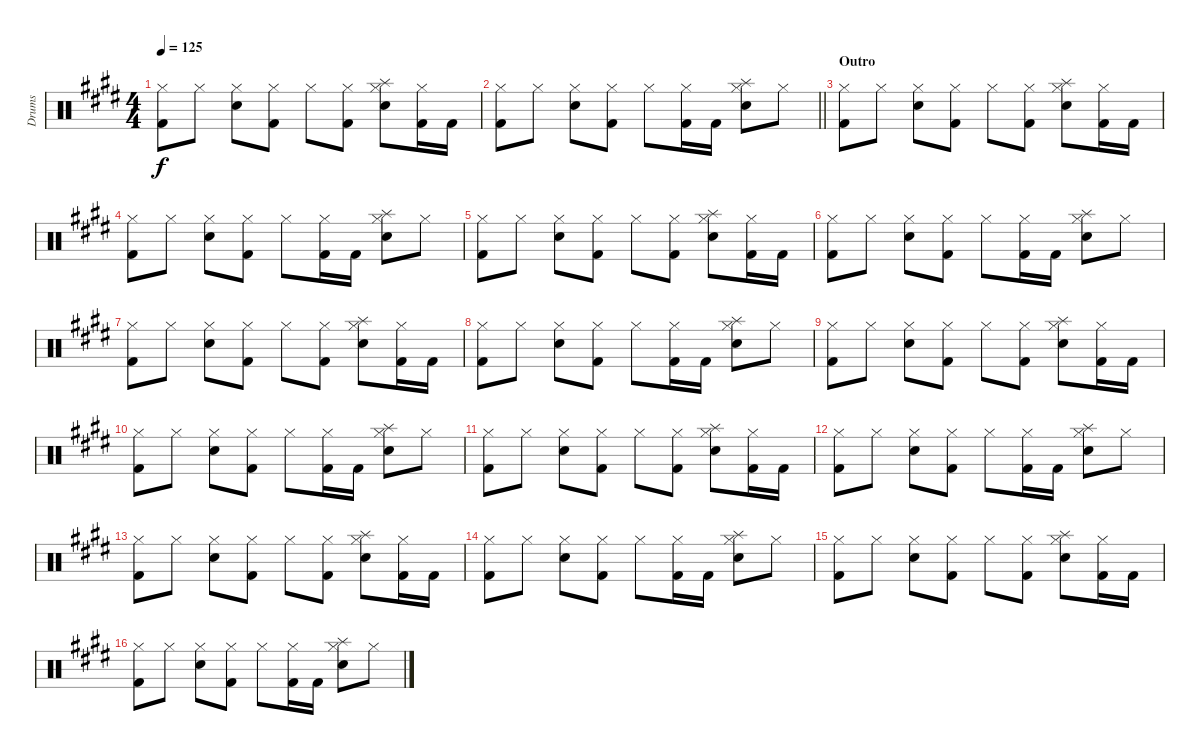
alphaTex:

\track ("Drums" "Drums") {instrument percussion}
\staff {score}
\articulation defaults
\ts (4 4)
\tempo 125
\clef neutral
\ks c#minor
("Hi-Hat (closed)" "Kick (hit) 2").8{dy f} "Hi-Hat (closed)".8 ("Hi-Hat (closed)" "Snare (hit) 2").8 ("Hi-Hat (closed)" "Kick (hit) 2").8 "Hi-Hat (closed)".8 ("Hi-Hat (closed)" "Kick (hit) 2").8 ("Hi-Hat (closed)" "Snare (hit) 2" "Splash (hit)").8 ("Hi-Hat (closed)" "Kick (hit) 2").16 "Kick (hit) 2".16 |
\barLineRight lightlight
("Hi-Hat (closed)" "Kick (hit) 2").8 "Hi-Hat (closed)".8 ("Hi-Hat (closed)" "Snare (hit) 2").8 ("Hi-Hat (closed)" "Kick (hit) 2").8 "Hi-Hat (closed)".8 ("Hi-Hat (closed)" "Kick (hit) 2").16 "Kick (hit) 2".16 ("Hi-Hat (closed)" "Snare (hit) 2" "Splash (hit)").8 "Hi-Hat (closed)".8 |
\section ("" "Outro")
("Hi-Hat (closed)" "Kick (hit) 2").8 "Hi-Hat (closed)".8 ("Hi-Hat (closed)" "Snare (hit) 2").8 ("Hi-Hat (closed)" "Kick (hit) 2").8 "Hi-Hat (closed)".8 ("Hi-Hat (closed)" "Kick (hit) 2").8 ("Hi-Hat (closed)" "Snare (hit) 2" "Splash (hit)").8 ("Hi-Hat (closed)" "Kick (hit) 2").16 "Kick (hit) 2".16 |
("Hi-Hat (closed)" "Kick (hit) 2").8 "Hi-Hat (closed)".8 ("Hi-Hat (closed)" "Snare (hit) 2").8 ("Hi-Hat (closed)" "Kick (hit) 2").8 "Hi-Hat (closed)".8 ("Hi-Hat (closed)" "Kick (hit) 2").16 "Kick (hit) 2".16 ("Hi-Hat (closed)" "Snare (hit) 2" "Splash (hit)").8 "Hi-Hat (closed)".8 |
("Hi-Hat (closed)" "Kick (hit) 2").8 "Hi-Hat (closed)".8 ("Hi-Hat (closed)" "Snare (hit) 2").8 ("Hi-Hat (closed)" "Kick (hit) 2").8 "Hi-Hat (closed)".8 ("Hi-Hat (closed)" "Kick (hit) 2").8 ("Hi-Hat (closed)" "Snare (hit) 2" "Splash (hit)").8 ("Hi-Hat (closed)" "Kick (hit) 2").16 "Kick (hit) 2".16 |
("Hi-Hat (closed)" "Kick (hit) 2").8 "Hi-Hat (closed)".8 ("Hi-Hat (closed)" "Snare (hit) 2").8 ("Hi-Hat (closed)" "Kick (hit) 2").8 "Hi-Hat (closed)".8 ("Hi-Hat (closed)" "Kick (hit) 2").16 "Kick (hit) 2".16 ("Hi-Hat (closed)" "Snare (hit) 2" "Splash (hit)").8 "Hi-Hat (closed)".8 |
("Hi-Hat (closed)" "Kick (hit) 2").8 "Hi-Hat (closed)".8 ("Hi-Hat (closed)" "Snare (hit) 2").8 ("Hi-Hat (closed)" "Kick (hit) 2").8 "Hi-Hat (closed)".8 ("Hi-Hat (closed)" "Kick (hit) 2").8 ("Hi-Hat (closed)" "Snare (hit) 2" "Splash (hit)").8 ("Hi-Hat (closed)" "Kick (hit) 2").16 "Kick (hit) 2".16 |
("Hi-Hat (closed)" "Kick (hit) 2").8 "Hi-Hat (closed)".8 ("Hi-Hat (closed)" "Snare (hit) 2").8 ("Hi-Hat (closed)" "Kick (hit) 2").8 "Hi-Hat (closed)".8 ("Hi-Hat (closed)" "Kick (hit) 2").16 "Kick (hit) 2".16 ("Hi-Hat (closed)" "Snare (hit) 2" "Splash (hit)").8 "Hi-Hat (closed)".8 |
("Hi-Hat (closed)" "Kick (hit) 2").8 "Hi-Hat (closed)".8 ("Hi-Hat (closed)" "Snare (hit) 2").8 ("Hi-Hat (closed)" "Kick (hit) 2").8 "Hi-Hat (closed)".8 ("Hi-Hat (closed)" "Kick (hit) 2").8 ("Hi-Hat (closed)" "Snare (hit) 2" "Splash (hit)").8 ("Hi-Hat (closed)" "Kick (hit) 2").16 "Kick (hit) 2".16 |
("Hi-Hat (closed)" "Kick (hit) 2").8 "Hi-Hat (closed)".8 ("Hi-Hat (closed)" "Snare (hit) 2").8 ("Hi-Hat (closed)" "Kick (hit) 2").8 "Hi-Hat (closed)".8 ("Hi-Hat (closed)" "Kick (hit) 2").16 "Kick (hit) 2".16 ("Hi-Hat (closed)" "Snare (hit) 2" "Splash (hit)").8 "Hi-Hat (closed)".8 |
("Hi-Hat (closed)" "Kick (hit) 2").8 "Hi-Hat (closed)".8 ("Hi-Hat (closed)" "Snare (hit) 2").8 ("Hi-Hat (closed)" "Kick (hit) 2").8 "Hi-Hat (closed)".8 ("Hi-Hat (closed)" "Kick (hit) 2").8 ("Hi-Hat (closed)" "Snare (hit) 2" "Splash (hit)").8 ("Hi-Hat (closed)" "Kick (hit) 2").16 "Kick (hit) 2".16 |
("Hi-Hat (closed)" "Kick (hit) 2").8 "Hi-Hat (closed)".8 ("Hi-Hat (closed)" "Snare (hit) 2").8 ("Hi-Hat (closed)" "Kick (hit) 2").8 "Hi-Hat (closed)".8 ("Hi-Hat (closed)" "Kick (hit) 2").16 "Kick (hit) 2".16 ("Hi-Hat (closed)" "Snare (hit) 2" "Splash (hit)").8 "Hi-Hat (closed)".8 |
("Hi-Hat (closed)" "Kick (hit) 2").8 "Hi-Hat (closed)".8 ("Hi-Hat (closed)" "Snare (hit) 2").8 ("Hi-Hat (closed)" "Kick (hit) 2").8 "Hi-Hat (closed)".8 ("Hi-Hat (closed)" "Kick (hit) 2").8 ("Hi-Hat (closed)" "Snare (hit) 2" "Splash (hit)").8 ("Hi-Hat (closed)" "Kick (hit) 2").16 "Kick (hit) 2".16 |
("Hi-Hat (closed)" "Kick (hit) 2").8 "Hi-Hat (closed)".8 ("Hi-Hat (closed)" "Snare (hit) 2").8 ("Hi-Hat (closed)" "Kick (hit) 2").8 "Hi-Hat (closed)".8 ("Hi-Hat (closed)" "Kick (hit) 2").16 "Kick (hit) 2".16 ("Hi-Hat (closed)" "Snare (hit) 2" "Splash (hit)").8 "Hi-Hat (closed)".8 |
("Hi-Hat (closed)" "Kick (hit) 2").8 "Hi-Hat (closed)".8 ("Hi-Hat (closed)" "Snare (hit) 2").8 ("Hi-Hat (closed)" "Kick (hit) 2").8 "Hi-Hat (closed)".8 ("Hi-Hat (closed)" "Kick (hit) 2").8 ("Hi-Hat (closed)" "Snare (hit) 2" "Splash (hit)").8 ("Hi-Hat (closed)" "Kick (hit) 2").16 "Kick (hit) 2".16 |
("Hi-Hat (closed)" "Kick (hit) 2").8 "Hi-Hat (closed)".8 ("Hi-Hat (closed)" "Snare (hit) 2").8 ("Hi-Hat (closed)" "Kick (hit) 2").8 "Hi-Hat (closed)".8 ("Hi-Hat (closed)" "Kick (hit) 2").16 "Kick (hit) 2".16 ("Hi-Hat (closed)" "Snare (hit) 2" "Splash (hit)").8 "Hi-Hat (closed)".8
